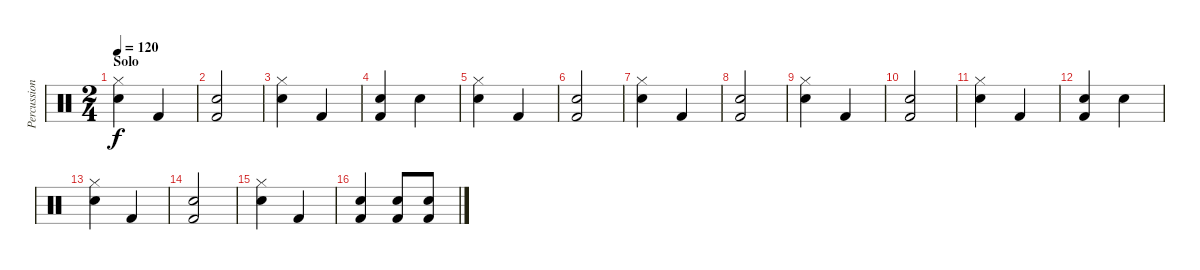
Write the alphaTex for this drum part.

\track ("Percussion" "Percussion") {instrument percussion}
\staff {score}
\articulation defaults
\ts (2 4)
\section ("" "Solo")
\tempo 120
\clef neutral
\ks c
("Hi-Hat (closed)" "Snare (hit) 2").4{dy f} "Kick (hit) 2".4 |
("Kick (hit) 2" "Snare (hit) 2").2 |
("Hi-Hat (closed)" "Snare (hit) 2").4 "Kick (hit) 2".4 |
("Kick (hit) 2" "Snare (hit) 2").4 "Snare (hit) 2".4 |
("Hi-Hat (closed)" "Snare (hit) 2").4 "Kick (hit) 2".4 |
("Kick (hit) 2" "Snare (hit) 2").2 |
("Hi-Hat (closed)" "Snare (hit) 2").4 "Kick (hit) 2".4 |
("Kick (hit) 2" "Snare (hit) 2").2 |
("Hi-Hat (closed)" "Snare (hit) 2").4 "Kick (hit) 2".4 |
("Kick (hit) 2" "Snare (hit) 2").2 |
("Hi-Hat (closed)" "Snare (hit) 2").4 "Kick (hit) 2".4 |
("Kick (hit) 2" "Snare (hit) 2").4 "Snare (hit) 2".4 |
("Hi-Hat (closed)" "Snare (hit) 2").4 "Kick (hit) 2".4 |
("Kick (hit) 2" "Snare (hit) 2").2 |
("Hi-Hat (closed)" "Snare (hit) 2").4 "Kick (hit) 2".4 |
("Kick (hit) 2" "Snare (hit) 2").4 ("Kick (hit) 2" "Snare (hit) 2").8 ("Kick (hit) 2" "Snare (hit) 2").8
